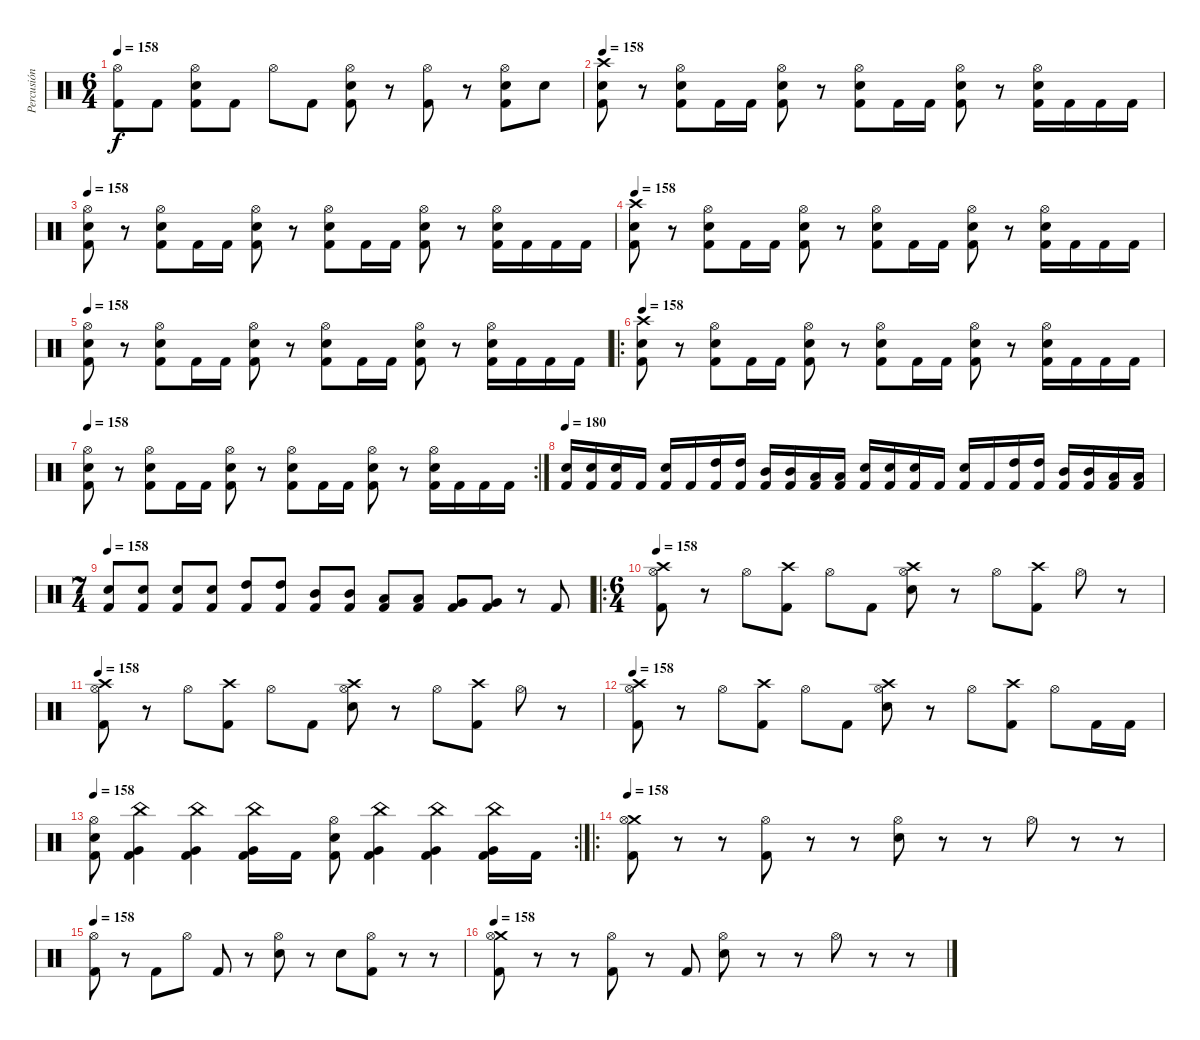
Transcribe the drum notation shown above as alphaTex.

\track ("Percusión" "Percusión") {instrument percussion}
\staff {score}
\articulation defaults
\ts (6 4)
\tempo 158
\clef neutral
\ks c
("Hi-Hat (open)" "Kick (hit) 2").8{dy f} "Kick (hit) 2".8 ("Hi-Hat (open)" "Electric Snare (hit)" "Kick (hit) 2").8 "Kick (hit) 2".8 "Hi-Hat (open)".8 "Kick (hit) 2".8 ("Hi-Hat (open)" "Electric Snare (hit)" "Kick (hit) 2").8 r.8 ("Hi-Hat (open)" "Kick (hit) 2").8 r.8 ("Hi-Hat (open)" "Electric Snare (hit)" "Kick (hit) 2").8 "Snare (hit)".8 |
\tempo 158
("Crash high (hit)" "Electric Snare (hit)" "Kick (hit) 2").8 r.8 ("Hi-Hat (open)" "Electric Snare (hit)" "Kick (hit) 2").8 "Kick (hit) 2".16 "Kick (hit) 2".16 ("Hi-Hat (open)" "Electric Snare (hit)" "Kick (hit) 2").8 r.8 ("Hi-Hat (open)" "Electric Snare (hit)" "Kick (hit) 2").8 "Kick (hit) 2".16 "Kick (hit) 2".16 ("Hi-Hat (open)" "Electric Snare (hit)" "Kick (hit) 2").8 r.8 ("Hi-Hat (open)" "Electric Snare (hit)" "Kick (hit) 2").16 "Kick (hit) 2".16 "Kick (hit) 2".16 "Kick (hit) 2".16 |
\tempo 158
("Hi-Hat (open)" "Electric Snare (hit)" "Kick (hit) 2").8 r.8 ("Hi-Hat (open)" "Electric Snare (hit)" "Kick (hit) 2").8 "Kick (hit) 2".16 "Kick (hit) 2".16 ("Hi-Hat (open)" "Electric Snare (hit)" "Kick (hit) 2").8 r.8 ("Hi-Hat (open)" "Electric Snare (hit)" "Kick (hit) 2").8 "Kick (hit) 2".16 "Kick (hit) 2".16 ("Hi-Hat (open)" "Electric Snare (hit)" "Kick (hit) 2").8 r.8 ("Hi-Hat (open)" "Electric Snare (hit)" "Kick (hit) 2").16 "Kick (hit) 2".16 "Kick (hit) 2".16 "Kick (hit) 2".16 |
\tempo 158
("Crash high (hit)" "Electric Snare (hit)" "Kick (hit) 2").8 r.8 ("Hi-Hat (open)" "Electric Snare (hit)" "Kick (hit) 2").8 "Kick (hit) 2".16 "Kick (hit) 2".16 ("Hi-Hat (open)" "Electric Snare (hit)" "Kick (hit) 2").8 r.8 ("Hi-Hat (open)" "Electric Snare (hit)" "Kick (hit) 2").8 "Kick (hit) 2".16 "Kick (hit) 2".16 ("Hi-Hat (open)" "Electric Snare (hit)" "Kick (hit) 2").8 r.8 ("Hi-Hat (open)" "Electric Snare (hit)" "Kick (hit) 2").16 "Kick (hit) 2".16 "Kick (hit) 2".16 "Kick (hit) 2".16 |
\tempo 158
("Hi-Hat (open)" "Electric Snare (hit)" "Kick (hit) 2").8 r.8 ("Hi-Hat (open)" "Electric Snare (hit)" "Kick (hit) 2").8 "Kick (hit) 2".16 "Kick (hit) 2".16 ("Hi-Hat (open)" "Electric Snare (hit)" "Kick (hit) 2").8 r.8 ("Hi-Hat (open)" "Electric Snare (hit)" "Kick (hit) 2").8 "Kick (hit) 2".16 "Kick (hit) 2".16 ("Hi-Hat (open)" "Electric Snare (hit)" "Kick (hit) 2").8 r.8 ("Hi-Hat (open)" "Electric Snare (hit)" "Kick (hit) 2").16 "Kick (hit) 2".16 "Kick (hit) 2".16 "Kick (hit) 2".16 |
\ro
\tempo 158
("Crash high (hit)" "Electric Snare (hit)" "Kick (hit) 2").8 r.8 ("Hi-Hat (open)" "Electric Snare (hit)" "Kick (hit) 2").8 "Kick (hit) 2".16 "Kick (hit) 2".16 ("Hi-Hat (open)" "Electric Snare (hit)" "Kick (hit) 2").8 r.8 ("Hi-Hat (open)" "Electric Snare (hit)" "Kick (hit) 2").8 "Kick (hit) 2".16 "Kick (hit) 2".16 ("Hi-Hat (open)" "Electric Snare (hit)" "Kick (hit) 2").8 r.8 ("Hi-Hat (open)" "Electric Snare (hit)" "Kick (hit) 2").16 "Kick (hit) 2".16 "Kick (hit) 2".16 "Kick (hit) 2".16 |
\rc 2
\tempo 158
("Hi-Hat (open)" "Electric Snare (hit)" "Kick (hit) 2").8 r.8 ("Hi-Hat (open)" "Electric Snare (hit)" "Kick (hit) 2").8 "Kick (hit) 2".16 "Kick (hit) 2".16 ("Hi-Hat (open)" "Electric Snare (hit)" "Kick (hit) 2").8 r.8 ("Hi-Hat (open)" "Electric Snare (hit)" "Kick (hit) 2").8 "Kick (hit) 2".16 "Kick (hit) 2".16 ("Hi-Hat (open)" "Electric Snare (hit)" "Kick (hit) 2").8 r.8 ("Hi-Hat (open)" "Electric Snare (hit)" "Kick (hit) 2").16 "Kick (hit) 2".16 "Kick (hit) 2".16 "Kick (hit) 2".16 |
\tempo 180
("Electric Snare (hit)" "Kick (hit) 2").16 ("Electric Snare (hit)" "Kick (hit) 2").16 ("Electric Snare (hit)" "Kick (hit) 2").16 "Kick (hit) 2".16 ("Electric Snare (hit)" "Kick (hit) 2").16 "Kick (hit) 2".16 ("High Tom (hit)" "Kick (hit) 2").16 ("High Tom (hit)" "Kick (hit) 2").16 ("Mid Tom (hit)" "Kick (hit) 2").16 ("Mid Tom (hit)" "Kick (hit) 2").16 ("Low Tom (hit)" "Kick (hit) 2").16 ("Low Tom (hit)" "Kick (hit) 2").16 ("Electric Snare (hit)" "Kick (hit) 2").16 ("Electric Snare (hit)" "Kick (hit) 2").16 ("Electric Snare (hit)" "Kick (hit) 2").16 "Kick (hit) 2".16 ("Electric Snare (hit)" "Kick (hit) 2").16 "Kick (hit) 2".16 ("High Tom (hit)" "Kick (hit) 2").16 ("High Tom (hit)" "Kick (hit) 2").16 ("Mid Tom (hit)" "Kick (hit) 2").16 ("Mid Tom (hit)" "Kick (hit) 2").16 ("Low Tom (hit)" "Kick (hit) 2").16 ("Low Tom (hit)" "Kick (hit) 2").16 |
\ts (7 4)
\tempo 158
("Electric Snare (hit)" "Kick (hit) 2").8 ("Electric Snare (hit)" "Kick (hit) 2").8 ("Electric Snare (hit)" "Kick (hit) 2").8 ("Electric Snare (hit)" "Kick (hit) 2").8 ("High Tom (hit)" "Kick (hit) 2").8 ("High Tom (hit)" "Kick (hit) 2").8 ("Mid Tom (hit)" "Kick (hit) 2").8 ("Mid Tom (hit)" "Kick (hit) 2").8 ("Low Tom (hit)" "Kick (hit) 2").8 ("Low Tom (hit)" "Kick (hit) 2").8 ("Very Low Tom (hit)" "Kick (hit) 2").8 ("Very Low Tom (hit)" "Kick (hit) 2").8 r.8 "Kick (hit) 2".8 |
\ro
\ts (6 4)
\tempo 158
("Crash high (hit)" "Hi-Hat (open)" "Kick (hit) 2").8 r.8 "Hi-Hat (open)".8 ("Crash high (hit)" "Kick (hit) 2").8 "Hi-Hat (open)".8 "Kick (hit) 2".8 ("Crash high (hit)" "Hi-Hat (open)" "Electric Snare (hit)").8 r.8 "Hi-Hat (open)".8 ("Crash high (hit)" "Kick (hit) 2").8 "Hi-Hat (open)".8 r.8 |
\tempo 158
("Crash high (hit)" "Hi-Hat (open)" "Kick (hit) 2").8 r.8 "Hi-Hat (open)".8 ("Crash high (hit)" "Kick (hit) 2").8 "Hi-Hat (open)".8 "Kick (hit) 2".8 ("Crash high (hit)" "Hi-Hat (open)" "Electric Snare (hit)").8 r.8 "Hi-Hat (open)".8 ("Crash high (hit)" "Kick (hit) 2").8 "Hi-Hat (open)".8 r.8 |
\tempo 158
("Crash high (hit)" "Hi-Hat (open)" "Kick (hit) 2").8 r.8 "Hi-Hat (open)".8 ("Crash high (hit)" "Kick (hit) 2").8 "Hi-Hat (open)".8 "Kick (hit) 2".8 ("Crash high (hit)" "Hi-Hat (open)" "Electric Snare (hit)").8 r.8 "Hi-Hat (open)".8 ("Crash high (hit)" "Kick (hit) 2").8 "Hi-Hat (open)".8 "Kick (hit) 2".16 "Kick (hit) 2".16 |
\rc 2
\tempo 158
("Hi-Hat (open)" "Electric Snare (hit)" "Kick (hit) 2").8 ("China (hit)" "Very Low Tom (hit)" "Kick (hit) 2").4 ("China (hit)" "Very Low Tom (hit)" "Kick (hit) 2").4 ("China (hit)" "Very Low Tom (hit)" "Kick (hit) 2").16 "Kick (hit) 2".16 ("Hi-Hat (open)" "Electric Snare (hit)" "Kick (hit) 2").8 ("China (hit)" "Very Low Tom (hit)" "Kick (hit) 2").4 ("China (hit)" "Very Low Tom (hit)" "Kick (hit) 2").4 ("China (hit)" "Very Low Tom (hit)" "Kick (hit) 2").16 "Kick (hit) 2".16 |
\ro
\tempo 158
("Crash medium (hit)" "Hi-Hat (open)" "Kick (hit) 2").8 r.8 r.8 ("Hi-Hat (open)" "Kick (hit) 2").8 r.8 r.8 ("Hi-Hat (open)" "Electric Snare (hit)").8 r.8 r.8 "Hi-Hat (open)".8 r.8 r.8 |
\tempo 158
("Hi-Hat (open)" "Kick (hit) 2").8 r.8 "Kick (hit) 2".8 "Hi-Hat (open)".8 "Kick (hit) 2".8 r.8 ("Hi-Hat (open)" "Electric Snare (hit)").8 r.8 "Electric Snare (hit)".8 ("Hi-Hat (open)" "Kick (hit) 2").8 r.8 r.8 |
\tempo 158
("Crash medium (hit)" "Hi-Hat (open)" "Kick (hit) 2").8 r.8 r.8 ("Hi-Hat (open)" "Kick (hit) 2").8 r.8 "Kick (hit) 2".8 ("Hi-Hat (open)" "Electric Snare (hit)").8 r.8 r.8 "Hi-Hat (open)".8 r.8 r.8
